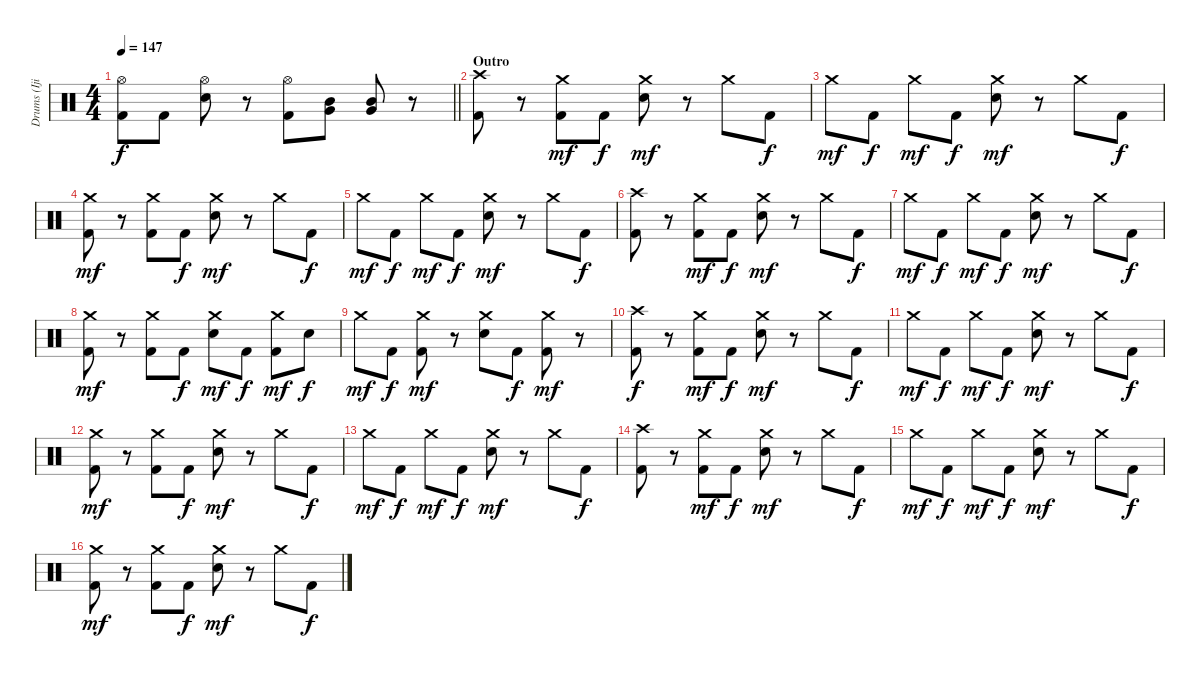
\track ("Drums (Ijichi)" "Drums (Iji") {instrument percussion}
\staff {score}
\articulation defaults
\ts (4 4)
\tempo 147
\clef neutral
\barLineRight lightlight
\ks c
("Hi-Hat (open)" "Kick (hit) 2").8{dy f} "Kick (hit) 2".8 ("Hi-Hat (open)" "Snare (hit) 2").8 r.8 ("Hi-Hat (open)" "Kick (hit) 2").8 ("Mid Tom (hit)" "Very Low Tom (hit)").8 ("Mid Tom (hit)" "Very Low Tom (hit)").8 r.8 |
\section ("" "Outro")
("Crash high (hit)" "Kick (hit) 2").8 r.8 ("Crash medium (hit)" "Kick (hit) 2").8{dy mf} "Kick (hit) 2".8{dy f} ("Crash medium (hit)" "Snare (hit) 2").8{dy mf} r.8 "Crash medium (hit)".8 "Kick (hit) 2".8{dy f} |
"Crash medium (hit)".8{dy mf} "Kick (hit) 2".8{dy f} "Crash medium (hit)".8{dy mf} "Kick (hit) 2".8{dy f} ("Crash medium (hit)" "Snare (hit) 2").8{dy mf} r.8 "Crash medium (hit)".8 "Kick (hit) 2".8{dy f} |
("Crash medium (hit)" "Kick (hit) 2").8{dy mf} r.8 ("Crash medium (hit)" "Kick (hit) 2").8 "Kick (hit) 2".8{dy f} ("Crash medium (hit)" "Snare (hit) 2").8{dy mf} r.8 "Crash medium (hit)".8 "Kick (hit) 2".8{dy f} |
"Crash medium (hit)".8{dy mf} "Kick (hit) 2".8{dy f} "Crash medium (hit)".8{dy mf} "Kick (hit) 2".8{dy f} ("Crash medium (hit)" "Snare (hit) 2").8{dy mf} r.8 "Crash medium (hit)".8 "Kick (hit) 2".8{dy f} |
("Crash high (hit)" "Kick (hit) 2").8 r.8 ("Crash medium (hit)" "Kick (hit) 2").8{dy mf} "Kick (hit) 2".8{dy f} ("Crash medium (hit)" "Snare (hit) 2").8{dy mf} r.8 "Crash medium (hit)".8 "Kick (hit) 2".8{dy f} |
"Crash medium (hit)".8{dy mf} "Kick (hit) 2".8{dy f} "Crash medium (hit)".8{dy mf} "Kick (hit) 2".8{dy f} ("Crash medium (hit)" "Snare (hit) 2").8{dy mf} r.8 "Crash medium (hit)".8 "Kick (hit) 2".8{dy f} |
("Crash medium (hit)" "Kick (hit) 2").8{dy mf} r.8 ("Crash medium (hit)" "Kick (hit) 2").8 "Kick (hit) 2".8{dy f} ("Crash medium (hit)" "Snare (hit) 2").8{dy mf} "Kick (hit) 2".8{dy f} ("Crash medium (hit)" "Kick (hit) 2").8{dy mf} "Snare (hit) 2".8{dy f} |
"Crash medium (hit)".8{dy mf} "Kick (hit) 2".8{dy f} ("Crash medium (hit)" "Kick (hit) 2").8{dy mf} r.8 ("Crash medium (hit)" "Snare (hit) 2").8 "Kick (hit) 2".8{dy f} ("Crash medium (hit)" "Kick (hit) 2").8{dy mf} r.8 |
("Crash high (hit)" "Kick (hit) 2").8{dy f} r.8 ("Crash medium (hit)" "Kick (hit) 2").8{dy mf} "Kick (hit) 2".8{dy f} ("Crash medium (hit)" "Snare (hit) 2").8{dy mf} r.8 "Crash medium (hit)".8 "Kick (hit) 2".8{dy f} |
"Crash medium (hit)".8{dy mf} "Kick (hit) 2".8{dy f} "Crash medium (hit)".8{dy mf} "Kick (hit) 2".8{dy f} ("Crash medium (hit)" "Snare (hit) 2").8{dy mf} r.8 "Crash medium (hit)".8 "Kick (hit) 2".8{dy f} |
("Crash medium (hit)" "Kick (hit) 2").8{dy mf} r.8 ("Crash medium (hit)" "Kick (hit) 2").8 "Kick (hit) 2".8{dy f} ("Crash medium (hit)" "Snare (hit) 2").8{dy mf} r.8 "Crash medium (hit)".8 "Kick (hit) 2".8{dy f} |
"Crash medium (hit)".8{dy mf} "Kick (hit) 2".8{dy f} "Crash medium (hit)".8{dy mf} "Kick (hit) 2".8{dy f} ("Crash medium (hit)" "Snare (hit) 2").8{dy mf} r.8 "Crash medium (hit)".8 "Kick (hit) 2".8{dy f} |
("Crash high (hit)" "Kick (hit) 2").8 r.8 ("Crash medium (hit)" "Kick (hit) 2").8{dy mf} "Kick (hit) 2".8{dy f} ("Crash medium (hit)" "Snare (hit) 2").8{dy mf} r.8 "Crash medium (hit)".8 "Kick (hit) 2".8{dy f} |
"Crash medium (hit)".8{dy mf} "Kick (hit) 2".8{dy f} "Crash medium (hit)".8{dy mf} "Kick (hit) 2".8{dy f} ("Crash medium (hit)" "Snare (hit) 2").8{dy mf} r.8 "Crash medium (hit)".8 "Kick (hit) 2".8{dy f} |
("Crash medium (hit)" "Kick (hit) 2").8{dy mf} r.8 ("Crash medium (hit)" "Kick (hit) 2").8 "Kick (hit) 2".8{dy f} ("Crash medium (hit)" "Snare (hit) 2").8{dy mf} r.8 "Crash medium (hit)".8 "Kick (hit) 2".8{dy f}
